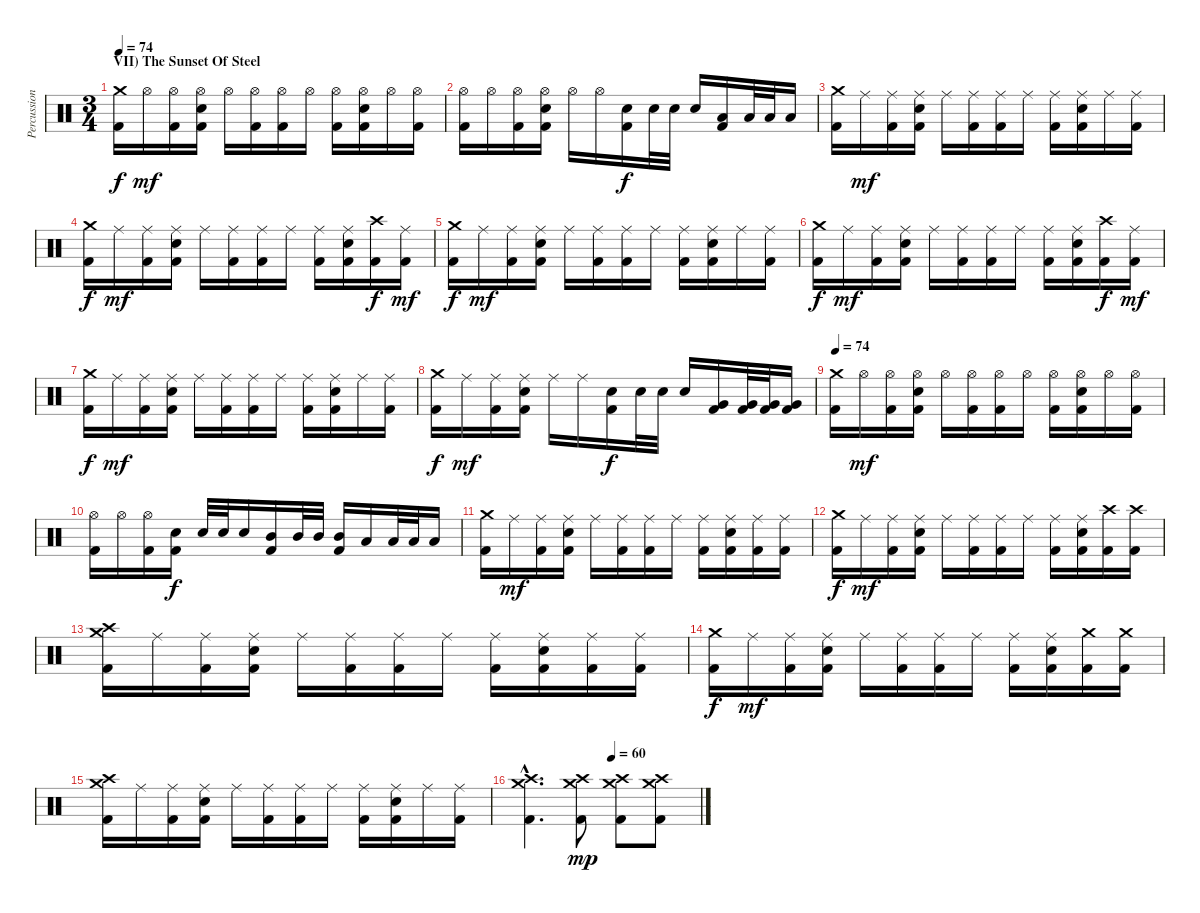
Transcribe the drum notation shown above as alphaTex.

\track ("Percussion" "Percussion") {instrument percussion}
\staff {score}
\articulation defaults
\ts (3 4)
\section ("" "VII) The Sunset Of Steel")
\tempo 74
\clef neutral
\ks c
("Crash medium (hit)" "Kick (hit) 2").16{dy f} "Hi-Hat (open)".16{dy mf} ("Hi-Hat (open)" "Kick (hit) 2").16 ("Hi-Hat (open)" "Electric Snare (hit)" "Kick (hit) 2").16 "Hi-Hat (open)".16 ("Hi-Hat (open)" "Kick (hit) 2").16 ("Hi-Hat (open)" "Kick (hit) 2").16 "Hi-Hat (open)".16 ("Hi-Hat (open)" "Kick (hit) 2").16 ("Hi-Hat (open)" "Electric Snare (hit)" "Kick (hit) 2").16 "Hi-Hat (open)".16 ("Hi-Hat (open)" "Kick (hit) 2").16 |
("Hi-Hat (open)" "Kick (hit) 2").16 "Hi-Hat (open)".16 ("Hi-Hat (open)" "Kick (hit) 2").16 ("Hi-Hat (open)" "Electric Snare (hit)" "Kick (hit) 2").16 "Hi-Hat (open)".16 "Hi-Hat (open)".16 ("Electric Snare (hit)" "Kick (hit) 2").16{dy f} "Electric Snare (hit)".32 "Electric Snare (hit)".32 "Electric Snare (hit)".16 ("Low Tom (hit)" "Kick (hit) 2").16 "Low Tom (hit)".32 "Low Tom (hit)".32 "Low Tom (hit)".16 |
("Crash medium (hit)" "Kick (hit) 2").16 "Ride (middle)".16{dy mf} ("Ride (middle)" "Kick (hit) 2").16 ("Ride (middle)" "Electric Snare (hit)" "Kick (hit) 2").16 "Ride (middle)".16 ("Ride (middle)" "Kick (hit) 2").16 ("Ride (middle)" "Kick (hit) 2").16 "Ride (middle)".16 ("Ride (middle)" "Kick (hit) 2").16 ("Ride (middle)" "Electric Snare (hit)" "Kick (hit) 2").16 "Ride (middle)".16 ("Ride (middle)" "Kick (hit) 2").16 |
("Crash medium (hit)" "Kick (hit) 2").16{dy f} "Ride (middle)".16{dy mf} ("Ride (middle)" "Kick (hit) 2").16 ("Ride (middle)" "Electric Snare (hit)" "Kick (hit) 2").16 "Ride (middle)".16 ("Ride (middle)" "Kick (hit) 2").16 ("Ride (middle)" "Kick (hit) 2").16 "Ride (middle)".16 ("Ride (middle)" "Kick (hit) 2").16 ("Ride (middle)" "Electric Snare (hit)" "Kick (hit) 2").16 ("Crash high (hit)" "Kick (hit) 2").16{dy f} ("Ride (middle)" "Kick (hit) 2").16{dy mf} |
("Crash medium (hit)" "Kick (hit) 2").16{dy f} "Ride (middle)".16{dy mf} ("Ride (middle)" "Kick (hit) 2").16 ("Ride (middle)" "Electric Snare (hit)" "Kick (hit) 2").16 "Ride (middle)".16 ("Ride (middle)" "Kick (hit) 2").16 ("Ride (middle)" "Kick (hit) 2").16 "Ride (middle)".16 ("Ride (middle)" "Kick (hit) 2").16 ("Ride (middle)" "Electric Snare (hit)" "Kick (hit) 2").16 "Ride (middle)".16 ("Ride (middle)" "Kick (hit) 2").16 |
("Crash medium (hit)" "Kick (hit) 2").16{dy f} "Ride (middle)".16{dy mf} ("Ride (middle)" "Kick (hit) 2").16 ("Ride (middle)" "Electric Snare (hit)" "Kick (hit) 2").16 "Ride (middle)".16 ("Ride (middle)" "Kick (hit) 2").16 ("Ride (middle)" "Kick (hit) 2").16 "Ride (middle)".16 ("Ride (middle)" "Kick (hit) 2").16 ("Ride (middle)" "Electric Snare (hit)" "Kick (hit) 2").16 ("Crash high (hit)" "Kick (hit) 2").16{dy f} ("Ride (middle)" "Kick (hit) 2").16{dy mf} |
("Crash medium (hit)" "Kick (hit) 2").16{dy f} "Ride (middle)".16{dy mf} ("Ride (middle)" "Kick (hit) 2").16 ("Ride (middle)" "Electric Snare (hit)" "Kick (hit) 2").16 "Ride (middle)".16 ("Ride (middle)" "Kick (hit) 2").16 ("Ride (middle)" "Kick (hit) 2").16 "Ride (middle)".16 ("Ride (middle)" "Kick (hit) 2").16 ("Ride (middle)" "Electric Snare (hit)" "Kick (hit) 2").16 "Ride (middle)".16 ("Ride (middle)" "Kick (hit) 2").16 |
("Crash medium (hit)" "Kick (hit) 2").16{dy f} "Ride (middle)".16{dy mf} ("Ride (middle)" "Kick (hit) 2").16 ("Ride (middle)" "Electric Snare (hit)" "Kick (hit) 2").16 "Ride (middle)".16 "Ride (middle)".16 ("Electric Snare (hit)" "Kick (hit) 2").16{dy f} "Electric Snare (hit)".32 "Electric Snare (hit)".32 "Electric Snare (hit)".16 ("Very Low Tom (hit)" "Kick (hit) 2").16 ("Very Low Tom (hit)" "Kick (hit) 2").32 ("Very Low Tom (hit)" "Kick (hit) 2").32 ("Very Low Tom (hit)" "Kick (hit) 2").16 |
\tempo 74
("Crash medium (hit)" "Kick (hit) 2").16 "Hi-Hat (open)".16{dy mf} ("Hi-Hat (open)" "Kick (hit) 2").16 ("Hi-Hat (open)" "Electric Snare (hit)" "Kick (hit) 2").16 "Hi-Hat (open)".16 ("Hi-Hat (open)" "Kick (hit) 2").16 ("Hi-Hat (open)" "Kick (hit) 2").16 "Hi-Hat (open)".16 ("Hi-Hat (open)" "Kick (hit) 2").16 ("Hi-Hat (open)" "Electric Snare (hit)" "Kick (hit) 2").16 "Hi-Hat (open)".16 ("Hi-Hat (open)" "Kick (hit) 2").16 |
("Hi-Hat (open)" "Kick (hit) 2").16 "Hi-Hat (open)".16 ("Hi-Hat (open)" "Kick (hit) 2").16 ("Electric Snare (hit)" "Kick (hit) 2").16{dy f} "Electric Snare (hit)".32 "Electric Snare (hit)".32 "Electric Snare (hit)".16 ("Mid Tom (hit)" "Kick (hit) 2").16 "Mid Tom (hit)".32 "Mid Tom (hit)".32 ("Mid Tom (hit)" "Kick (hit) 2").16 "Low Tom (hit)".16 "Low Tom (hit)".32 "Low Tom (hit)".32 "Low Tom (hit)".16 |
("Crash medium (hit)" "Kick (hit) 2").16 "Ride (middle)".16{dy mf} ("Ride (middle)" "Kick (hit) 2").16 ("Ride (middle)" "Electric Snare (hit)" "Kick (hit) 2").16 "Ride (middle)".16 ("Ride (middle)" "Kick (hit) 2").16 ("Ride (middle)" "Kick (hit) 2").16 "Ride (middle)".16 ("Ride (middle)" "Kick (hit) 2").16 ("Ride (middle)" "Electric Snare (hit)" "Kick (hit) 2").16 ("Ride (middle)" "Kick (hit) 2").16 ("Ride (middle)" "Kick (hit) 2").16 |
("Crash medium (hit)" "Kick (hit) 2").16{dy f} "Ride (middle)".16{dy mf} ("Ride (middle)" "Kick (hit) 2").16 ("Ride (middle)" "Electric Snare (hit)" "Kick (hit) 2").16 "Ride (middle)".16 ("Ride (middle)" "Kick (hit) 2").16 ("Ride (middle)" "Kick (hit) 2").16 "Ride (middle)".16 ("Ride (middle)" "Kick (hit) 2").16 ("Ride (middle)" "Electric Snare (hit)" "Kick (hit) 2").16 ("Crash high (hit)" "Kick (hit) 2").16 ("Crash high (hit)" "Kick (hit) 2").16 |
("Crash medium (hit)" "Crash high (hit)" "Kick (hit) 2").16 "Ride (middle)".16 ("Ride (middle)" "Kick (hit) 2").16 ("Ride (middle)" "Electric Snare (hit)" "Kick (hit) 2").16 "Ride (middle)".16 ("Ride (middle)" "Kick (hit) 2").16 ("Ride (middle)" "Kick (hit) 2").16 "Ride (middle)".16 ("Ride (middle)" "Kick (hit) 2").16 ("Ride (middle)" "Electric Snare (hit)" "Kick (hit) 2").16 ("Ride (middle)" "Kick (hit) 2").16 ("Ride (middle)" "Kick (hit) 2").16 |
("Crash medium (hit)" "Kick (hit) 2").16{dy f} "Ride (middle)".16{dy mf} ("Ride (middle)" "Kick (hit) 2").16 ("Ride (middle)" "Electric Snare (hit)" "Kick (hit) 2").16 "Ride (middle)".16 ("Ride (middle)" "Kick (hit) 2").16 ("Ride (middle)" "Kick (hit) 2").16 "Ride (middle)".16 ("Ride (middle)" "Kick (hit) 2").16 ("Ride (middle)" "Electric Snare (hit)" "Kick (hit) 2").16 ("Crash medium (hit)" "Kick (hit) 2").16 ("Crash medium (hit)" "Kick (hit) 2").16 |
("Crash high (hit)" "Crash medium (hit)" "Kick (hit) 2").16 "Ride (middle)".16 ("Ride (middle)" "Kick (hit) 2").16 ("Ride (middle)" "Electric Snare (hit)" "Kick (hit) 2").16 "Ride (middle)".16 ("Ride (middle)" "Kick (hit) 2").16 ("Ride (middle)" "Kick (hit) 2").16 "Ride (middle)".16 ("Ride (middle)" "Kick (hit) 2").16 ("Ride (middle)" "Electric Snare (hit)" "Kick (hit) 2").16 "Ride (middle)".16 ("Ride (middle)" "Kick (hit) 2").16 |
\tempo (60 0.5)
("Crash medium (hit)"{hac} "Crash high (hit)"{hac} "Kick (hit) 2"{hac}).4{d} ("Crash medium (hit)" "Crash high (hit)" "Kick (hit) 2").8{dy mp} ("Crash high (hit)" "Crash medium (hit)" "Kick (hit) 2").8 ("Crash medium (hit)" "Crash high (hit)" "Kick (hit) 2").8
